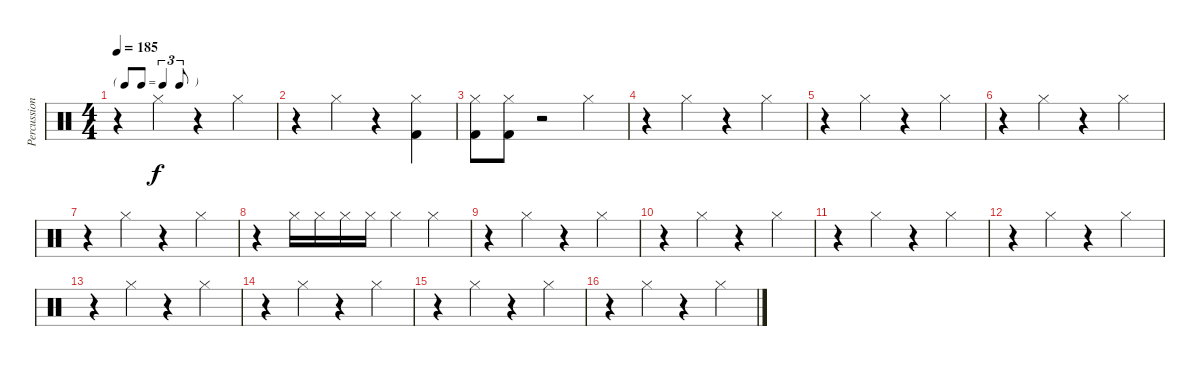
\track ("Percussion" "Percussion") {instrument percussion}
\staff {score}
\articulation defaults
\ts (4 4)
\tf triplet8th
\tempo 185
\clef neutral
\ks c
r.4{dy f} "Hi-Hat (closed)".4 r.4 "Hi-Hat (closed)".4 |
r.4 "Hi-Hat (closed)".4 r.4 ("Kick (hit) 2" "Hi-Hat (closed)").4 |
("Kick (hit) 2" "Hi-Hat (closed)").8 ("Kick (hit) 2" "Hi-Hat (closed)").8 r.2 "Hi-Hat (closed)".4 |
r.4 "Hi-Hat (closed)".4 r.4 "Hi-Hat (closed)".4 |
r.4 "Hi-Hat (closed)".4 r.4 "Hi-Hat (closed)".4 |
r.4 "Hi-Hat (closed)".4 r.4 "Hi-Hat (closed)".4 |
r.4 "Hi-Hat (closed)".4 r.4 "Hi-Hat (closed)".4 |
r.4 "Hi-Hat (closed)".16 "Hi-Hat (closed)".16 "Hi-Hat (closed)".16 "Hi-Hat (closed)".16 "Hi-Hat (closed)".4 "Hi-Hat (closed)".4 |
r.4 "Hi-Hat (closed)".4 r.4 "Hi-Hat (closed)".4 |
r.4 "Hi-Hat (closed)".4 r.4 "Hi-Hat (closed)".4 |
r.4 "Hi-Hat (closed)".4 r.4 "Hi-Hat (closed)".4 |
r.4 "Hi-Hat (closed)".4 r.4 "Hi-Hat (closed)".4 |
r.4 "Hi-Hat (closed)".4 r.4 "Hi-Hat (closed)".4 |
r.4 "Hi-Hat (closed)".4 r.4 "Hi-Hat (closed)".4 |
r.4 "Hi-Hat (closed)".4 r.4 "Hi-Hat (closed)".4 |
r.4 "Hi-Hat (closed)".4 r.4 "Hi-Hat (closed)".4
